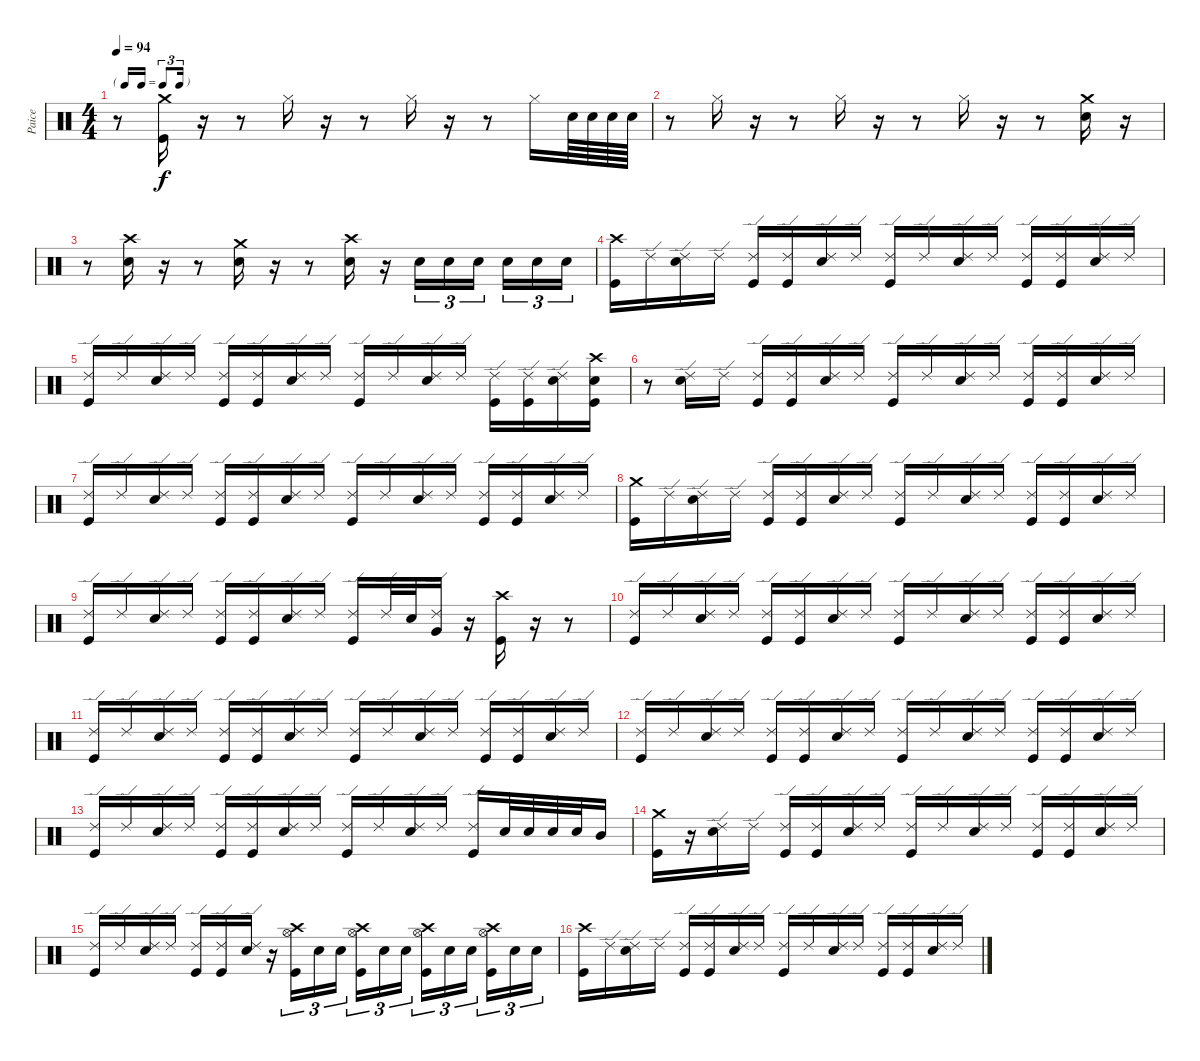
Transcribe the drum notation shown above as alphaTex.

\track ("Paice" "Paice") {instrument percussion}
\staff {score}
\articulation defaults
\ts (4 4)
\tf triplet16th
\tempo 94
\clef neutral
\ks c
r.8{dy f} ("Crash medium (hit)" "Kick (hit)").16 r.16 r.8 "Hi-Hat (closed)".16 r.16 r.8 "Hi-Hat (closed)".16 r.16 r.8 "Hi-Hat (closed)".16 "Snare (hit) 2".64 "Snare (hit) 2".64 "Snare (hit) 2".64 "Snare (hit) 2".64 |
r.8 "Hi-Hat (closed)".16 r.16 r.8 "Hi-Hat (closed)".16 r.16 r.8 "Hi-Hat (closed)".16 r.16 r.8 ("Crash medium (hit)" "Snare (hit) 2").16 r.16 |
r.8 ("Crash high (hit)" "Snare (hit) 2").16 r.16 r.8 ("Crash medium (hit)" "Snare (hit) 2").16 r.16 r.8 ("Crash high (hit)" "Snare (hit) 2").16 r.16 "Snare (hit) 2".16{tu (3 2)} "Snare (hit) 2".16{tu (3 2)} "Snare (hit) 2".16{tu (3 2) beam splitsecondary} "Snare (hit) 2".16{tu (3 2)} "Snare (hit) 2".16{tu (3 2)} "Snare (hit) 2".16{tu (3 2)} |
("Crash high (hit)" "Kick (hit)").16 "Ride (edge) 2".16 ("Ride (edge) 2" "Snare (hit) 2").16 "Ride (edge) 2".16 ("Ride (edge) 2" "Kick (hit)").16 ("Ride (edge) 2" "Kick (hit)").16 ("Ride (edge) 2" "Snare (hit) 2").16 "Ride (edge) 2".16 ("Ride (edge) 2" "Kick (hit)").16 "Ride (edge) 2".16 ("Ride (edge) 2" "Snare (hit) 2").16 "Ride (edge) 2".16 ("Ride (edge) 2" "Kick (hit)").16 ("Ride (edge) 2" "Kick (hit)").16 ("Ride (edge) 2" "Snare (hit) 2").16 "Ride (edge) 2".16 |
("Ride (edge) 2" "Kick (hit)").16 "Ride (edge) 2".16 ("Ride (edge) 2" "Snare (hit) 2").16 "Ride (edge) 2".16 ("Ride (edge) 2" "Kick (hit)").16 ("Ride (edge) 2" "Kick (hit)").16 ("Ride (edge) 2" "Snare (hit) 2").16 "Ride (edge) 2".16 ("Ride (edge) 2" "Kick (hit)").16 "Ride (edge) 2".16 ("Ride (edge) 2" "Snare (hit) 2").16 "Ride (edge) 2".16 ("Ride (edge) 2" "Kick (hit)").16 ("Ride (edge) 2" "Kick (hit)").16 ("Ride (edge) 2" "Snare (hit) 2").16 ("Crash high (hit)" "Snare (hit) 2" "Kick (hit)").16 |
r.8 ("Ride (edge) 2" "Snare (hit) 2").16 "Ride (edge) 2".16 ("Ride (edge) 2" "Kick (hit)").16 ("Ride (edge) 2" "Kick (hit)").16 ("Ride (edge) 2" "Snare (hit) 2").16 "Ride (edge) 2".16 ("Ride (edge) 2" "Kick (hit)").16 "Ride (edge) 2".16 ("Ride (edge) 2" "Snare (hit) 2").16 "Ride (edge) 2".16 ("Ride (edge) 2" "Kick (hit)").16 ("Ride (edge) 2" "Kick (hit)").16 ("Ride (edge) 2" "Snare (hit) 2").16 "Ride (edge) 2".16 |
("Ride (edge) 2" "Kick (hit)").16 "Ride (edge) 2".16 ("Ride (edge) 2" "Snare (hit) 2").16 "Ride (edge) 2".16 ("Ride (edge) 2" "Kick (hit)").16 ("Ride (edge) 2" "Kick (hit)").16 ("Ride (edge) 2" "Snare (hit) 2").16 "Ride (edge) 2".16 ("Ride (edge) 2" "Kick (hit)").16 "Ride (edge) 2".16 ("Ride (edge) 2" "Snare (hit) 2").16 "Ride (edge) 2".16 ("Ride (edge) 2" "Kick (hit)").16 ("Ride (edge) 2" "Kick (hit)").16 ("Ride (edge) 2" "Snare (hit) 2").16 "Ride (edge) 2".16 |
("Crash medium (hit)" "Kick (hit)").16 "Ride (edge) 2".16 ("Ride (edge) 2" "Snare (hit) 2").16 "Ride (edge) 2".16 ("Ride (edge) 2" "Kick (hit)").16 ("Ride (edge) 2" "Kick (hit)").16 ("Ride (edge) 2" "Snare (hit) 2").16 "Ride (edge) 2".16 ("Ride (edge) 2" "Kick (hit)").16 "Ride (edge) 2".16 ("Ride (edge) 2" "Snare (hit) 2").16 "Ride (edge) 2".16 ("Ride (edge) 2" "Kick (hit)").16 ("Ride (edge) 2" "Kick (hit)").16 ("Ride (edge) 2" "Snare (hit) 2").16 "Ride (edge) 2".16 |
("Ride (edge) 2" "Kick (hit)").16 "Ride (edge) 2".16 ("Ride (edge) 2" "Snare (hit) 2").16 "Ride (edge) 2".16 ("Ride (edge) 2" "Kick (hit)").16 ("Ride (edge) 2" "Kick (hit)").16 ("Ride (edge) 2" "Snare (hit) 2").16 "Ride (edge) 2".16 ("Ride (edge) 2" "Kick (hit)").16 "Ride (edge) 2".32 "Snare (hit) 2".32 ("Ride (edge) 2" "Very Low Tom (hit)").16 r.16 ("Crash high (hit)" "Kick (hit)").16 r.16 r.8 |
("Ride (edge) 2" "Kick (hit)").16 "Ride (edge) 2".16 ("Ride (edge) 2" "Snare (hit) 2").16 "Ride (edge) 2".16 ("Ride (edge) 2" "Kick (hit)").16 ("Ride (edge) 2" "Kick (hit)").16 ("Ride (edge) 2" "Snare (hit) 2").16 "Ride (edge) 2".16 ("Ride (edge) 2" "Kick (hit)").16 "Ride (edge) 2".16 ("Ride (edge) 2" "Snare (hit) 2").16 "Ride (edge) 2".16 ("Ride (edge) 2" "Kick (hit)").16 ("Ride (edge) 2" "Kick (hit)").16 ("Ride (edge) 2" "Snare (hit) 2").16 "Ride (edge) 2".16 |
("Ride (edge) 2" "Kick (hit)").16 "Ride (edge) 2".16 ("Ride (edge) 2" "Snare (hit) 2").16 "Ride (edge) 2".16 ("Ride (edge) 2" "Kick (hit)").16 ("Ride (edge) 2" "Kick (hit)").16 ("Ride (edge) 2" "Snare (hit) 2").16 "Ride (edge) 2".16 ("Ride (edge) 2" "Kick (hit)").16 "Ride (edge) 2".16 ("Ride (edge) 2" "Snare (hit) 2").16 "Ride (edge) 2".16 ("Ride (edge) 2" "Kick (hit)").16 ("Ride (edge) 2" "Kick (hit)").16 ("Ride (edge) 2" "Snare (hit) 2").16 "Ride (edge) 2".16 |
("Ride (edge) 2" "Kick (hit)").16 "Ride (edge) 2".16 ("Ride (edge) 2" "Snare (hit) 2").16 "Ride (edge) 2".16 ("Ride (edge) 2" "Kick (hit)").16 ("Ride (edge) 2" "Kick (hit)").16 ("Ride (edge) 2" "Snare (hit) 2").16 "Ride (edge) 2".16 ("Ride (edge) 2" "Kick (hit)").16 "Ride (edge) 2".16 ("Ride (edge) 2" "Snare (hit) 2").16 "Ride (edge) 2".16 ("Ride (edge) 2" "Kick (hit)").16 ("Ride (edge) 2" "Kick (hit)").16 ("Ride (edge) 2" "Snare (hit) 2").16 "Ride (edge) 2".16 |
("Ride (edge) 2" "Kick (hit)").16 "Ride (edge) 2".16 ("Ride (edge) 2" "Snare (hit) 2").16 "Ride (edge) 2".16 ("Ride (edge) 2" "Kick (hit)").16 ("Ride (edge) 2" "Kick (hit)").16 ("Ride (edge) 2" "Snare (hit) 2").16 "Ride (edge) 2".16 ("Ride (edge) 2" "Kick (hit)").16 "Ride (edge) 2".16 ("Ride (edge) 2" "Snare (hit) 2").16 "Ride (edge) 2".16 ("Ride (edge) 2" "Kick (hit)").16 "Snare (hit) 2".32 "Snare (hit) 2".32 "Snare (hit) 2".32 "Snare (hit) 2".32 "Mid Tom (hit)".16 |
("Crash medium (hit)" "Kick (hit)").16 r.16 ("Ride (edge) 2" "Snare (hit) 2").16 "Ride (edge) 2".16 ("Ride (edge) 2" "Kick (hit)").16 ("Ride (edge) 2" "Kick (hit)").16 ("Ride (edge) 2" "Snare (hit) 2").16 "Ride (edge) 2".16 ("Ride (edge) 2" "Kick (hit)").16 "Ride (edge) 2".16 ("Ride (edge) 2" "Snare (hit) 2").16 "Ride (edge) 2".16 ("Ride (edge) 2" "Kick (hit)").16 ("Ride (edge) 2" "Kick (hit)").16 ("Ride (edge) 2" "Snare (hit) 2").16 "Ride (edge) 2".16 |
("Ride (edge) 2" "Kick (hit)").16 "Ride (edge) 2".16 ("Ride (edge) 2" "Snare (hit) 2").16 "Ride (edge) 2".16 ("Ride (edge) 2" "Kick (hit)").16 ("Ride (edge) 2" "Kick (hit)").16 ("Ride (edge) 2" "Snare (hit) 2").16 r.16 ("Crash high (hit)" "Hi-Hat (open)" "Kick (hit)").16{tu (3 2)} "Snare (hit) 2".16{tu (3 2)} "Snare (hit) 2".16{tu (3 2) beam splitsecondary} ("Crash high (hit)" "Hi-Hat (open)" "Kick (hit)").16{tu (3 2)} "Snare (hit) 2".16{tu (3 2)} "Snare (hit) 2".16{tu (3 2)} ("Crash high (hit)" "Hi-Hat (open)" "Kick (hit)").16{tu (3 2)} "Snare (hit) 2".16{tu (3 2)} "Snare (hit) 2".16{tu (3 2) beam splitsecondary} ("Crash high (hit)" "Hi-Hat (open)" "Kick (hit)").16{tu (3 2)} "Snare (hit) 2".16{tu (3 2)} "Snare (hit) 2".16{tu (3 2)} |
("Crash high (hit)" "Kick (hit)").16 "Ride (edge) 2".16 ("Ride (edge) 2" "Snare (hit) 2").16 "Ride (edge) 2".16 ("Ride (edge) 2" "Kick (hit)").16 ("Ride (edge) 2" "Kick (hit)").16 ("Ride (edge) 2" "Snare (hit) 2").16 "Ride (edge) 2".16 ("Ride (edge) 2" "Kick (hit)").16 "Ride (edge) 2".16 ("Ride (edge) 2" "Snare (hit) 2").16 "Ride (edge) 2".16 ("Ride (edge) 2" "Kick (hit)").16 ("Ride (edge) 2" "Kick (hit)").16 ("Ride (edge) 2" "Snare (hit) 2").16 "Ride (edge) 2".16
